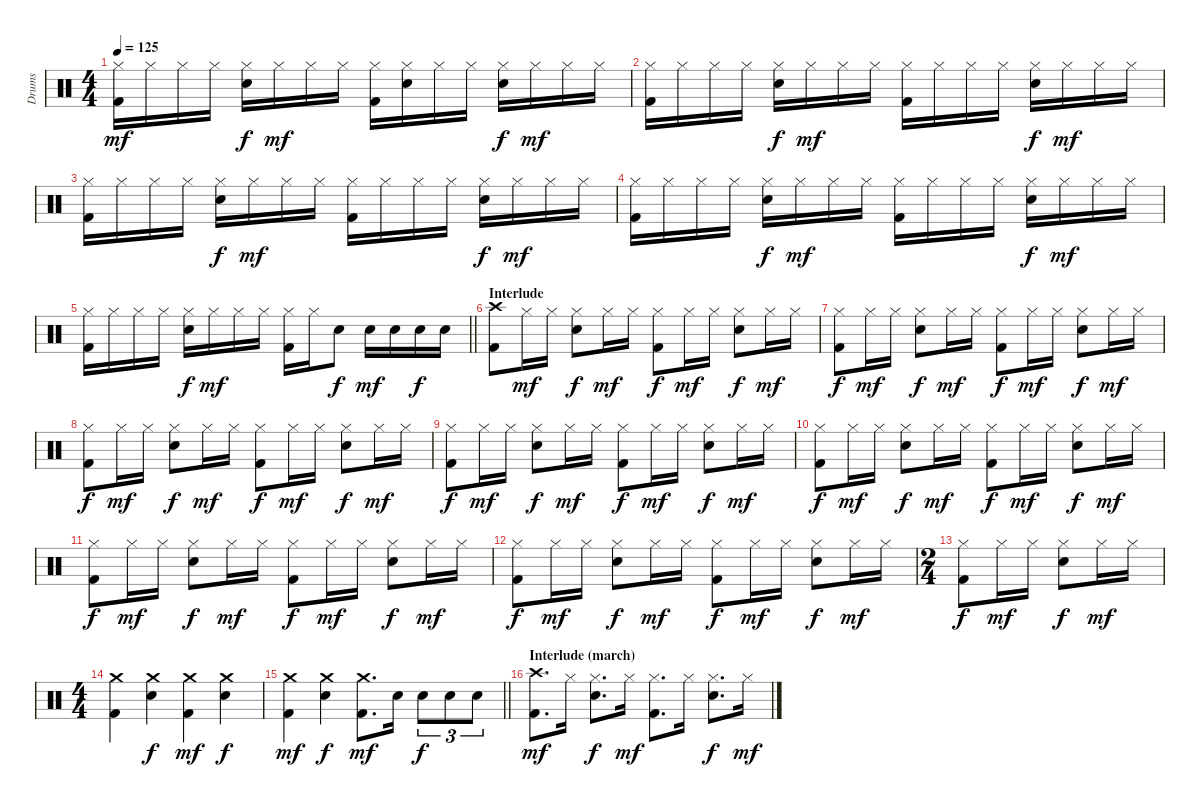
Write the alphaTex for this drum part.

\track ("Drums" "Drums") {instrument percussion}
\staff {score}
\articulation defaults
\ts (4 4)
\tempo 125
\clef neutral
\ks c
("Hi-Hat (closed)" "Kick (hit) 2").16{dy mf} "Hi-Hat (closed)".16 "Hi-Hat (closed)".16 "Hi-Hat (closed)".16 ("Hi-Hat (closed)" "Snare (hit) 2").16{dy f} "Hi-Hat (closed)".16{dy mf} "Hi-Hat (closed)".16 "Hi-Hat (closed)".16 ("Hi-Hat (closed)" "Kick (hit) 2").16 ("Hi-Hat (closed)" "Snare (hit) 2").16 "Hi-Hat (closed)".16 "Hi-Hat (closed)".16 ("Hi-Hat (closed)" "Snare (hit) 2").16{dy f} "Hi-Hat (closed)".16{dy mf} "Hi-Hat (closed)".16 "Hi-Hat (closed)".16 |
("Hi-Hat (closed)" "Kick (hit) 2").16 "Hi-Hat (closed)".16 "Hi-Hat (closed)".16 "Hi-Hat (closed)".16 ("Hi-Hat (closed)" "Snare (hit) 2").16{dy f} "Hi-Hat (closed)".16{dy mf} "Hi-Hat (closed)".16 "Hi-Hat (closed)".16 ("Hi-Hat (closed)" "Kick (hit) 2").16 "Hi-Hat (closed)".16 "Hi-Hat (closed)".16 "Hi-Hat (closed)".16 ("Hi-Hat (closed)" "Snare (hit) 2").16{dy f} "Hi-Hat (closed)".16{dy mf} "Hi-Hat (closed)".16 "Hi-Hat (closed)".16 |
("Hi-Hat (closed)" "Kick (hit) 2").16 "Hi-Hat (closed)".16 "Hi-Hat (closed)".16 "Hi-Hat (closed)".16 ("Hi-Hat (closed)" "Snare (hit) 2").16{dy f} "Hi-Hat (closed)".16{dy mf} "Hi-Hat (closed)".16 "Hi-Hat (closed)".16 ("Hi-Hat (closed)" "Kick (hit) 2").16 "Hi-Hat (closed)".16 "Hi-Hat (closed)".16 "Hi-Hat (closed)".16 ("Hi-Hat (closed)" "Snare (hit) 2").16{dy f} "Hi-Hat (closed)".16{dy mf} "Hi-Hat (closed)".16 "Hi-Hat (closed)".16 |
("Hi-Hat (closed)" "Kick (hit) 2").16 "Hi-Hat (closed)".16 "Hi-Hat (closed)".16 "Hi-Hat (closed)".16 ("Hi-Hat (closed)" "Snare (hit) 2").16{dy f} "Hi-Hat (closed)".16{dy mf} "Hi-Hat (closed)".16 "Hi-Hat (closed)".16 ("Hi-Hat (closed)" "Kick (hit) 2").16 "Hi-Hat (closed)".16 "Hi-Hat (closed)".16 "Hi-Hat (closed)".16 ("Hi-Hat (closed)" "Snare (hit) 2").16{dy f} "Hi-Hat (closed)".16{dy mf} "Hi-Hat (closed)".16 "Hi-Hat (closed)".16 |
\barLineRight lightlight
("Hi-Hat (closed)" "Kick (hit) 2").16 "Hi-Hat (closed)".16 "Hi-Hat (closed)".16 "Hi-Hat (closed)".16 ("Hi-Hat (closed)" "Snare (hit) 2").16{dy f} "Hi-Hat (closed)".16{dy mf} "Hi-Hat (closed)".16 "Hi-Hat (closed)".16 ("Hi-Hat (closed)" "Kick (hit) 2").16 "Hi-Hat (closed)".16 "Snare (hit) 2".8{dy f} "Snare (hit) 2".16{dy mf} "Snare (hit) 2".16 "Snare (hit) 2".16{dy f} "Snare (hit) 2".16 |
\section ("" "Interlude")
("Crash high (hit)" "Kick (hit) 2").8 "Hi-Hat (closed)".16{dy mf} "Hi-Hat (closed)".16 ("Hi-Hat (closed)" "Snare (hit) 2").8{dy f} "Hi-Hat (closed)".16{dy mf} "Hi-Hat (closed)".16 ("Hi-Hat (closed)" "Kick (hit) 2").8{dy f} "Hi-Hat (closed)".16{dy mf} "Hi-Hat (closed)".16 ("Hi-Hat (closed)" "Snare (hit) 2").8{dy f} "Hi-Hat (closed)".16{dy mf} "Hi-Hat (closed)".16 |
("Hi-Hat (closed)" "Kick (hit) 2").8{dy f} "Hi-Hat (closed)".16{dy mf} "Hi-Hat (closed)".16 ("Hi-Hat (closed)" "Snare (hit) 2").8{dy f} "Hi-Hat (closed)".16{dy mf} "Hi-Hat (closed)".16 ("Hi-Hat (closed)" "Kick (hit) 2").8{dy f} "Hi-Hat (closed)".16{dy mf} "Hi-Hat (closed)".16 ("Hi-Hat (closed)" "Snare (hit) 2").8{dy f} "Hi-Hat (closed)".16{dy mf} "Hi-Hat (closed)".16 |
("Hi-Hat (closed)" "Kick (hit) 2").8{dy f} "Hi-Hat (closed)".16{dy mf} "Hi-Hat (closed)".16 ("Hi-Hat (closed)" "Snare (hit) 2").8{dy f} "Hi-Hat (closed)".16{dy mf} "Hi-Hat (closed)".16 ("Hi-Hat (closed)" "Kick (hit) 2").8{dy f} "Hi-Hat (closed)".16{dy mf} "Hi-Hat (closed)".16 ("Hi-Hat (closed)" "Snare (hit) 2").8{dy f} "Hi-Hat (closed)".16{dy mf} "Hi-Hat (closed)".16 |
("Hi-Hat (closed)" "Kick (hit) 2").8{dy f} "Hi-Hat (closed)".16{dy mf} "Hi-Hat (closed)".16 ("Hi-Hat (closed)" "Snare (hit) 2").8{dy f} "Hi-Hat (closed)".16{dy mf} "Hi-Hat (closed)".16 ("Hi-Hat (closed)" "Kick (hit) 2").8{dy f} "Hi-Hat (closed)".16{dy mf} "Hi-Hat (closed)".16 ("Hi-Hat (closed)" "Snare (hit) 2").8{dy f} "Hi-Hat (closed)".16{dy mf} "Hi-Hat (closed)".16 |
("Hi-Hat (closed)" "Kick (hit) 2").8{dy f} "Hi-Hat (closed)".16{dy mf} "Hi-Hat (closed)".16 ("Hi-Hat (closed)" "Snare (hit) 2").8{dy f} "Hi-Hat (closed)".16{dy mf} "Hi-Hat (closed)".16 ("Hi-Hat (closed)" "Kick (hit) 2").8{dy f} "Hi-Hat (closed)".16{dy mf} "Hi-Hat (closed)".16 ("Hi-Hat (closed)" "Snare (hit) 2").8{dy f} "Hi-Hat (closed)".16{dy mf} "Hi-Hat (closed)".16 |
("Hi-Hat (closed)" "Kick (hit) 2").8{dy f} "Hi-Hat (closed)".16{dy mf} "Hi-Hat (closed)".16 ("Hi-Hat (closed)" "Snare (hit) 2").8{dy f} "Hi-Hat (closed)".16{dy mf} "Hi-Hat (closed)".16 ("Hi-Hat (closed)" "Kick (hit) 2").8{dy f} "Hi-Hat (closed)".16{dy mf} "Hi-Hat (closed)".16 ("Hi-Hat (closed)" "Snare (hit) 2").8{dy f} "Hi-Hat (closed)".16{dy mf} "Hi-Hat (closed)".16 |
("Hi-Hat (closed)" "Kick (hit) 2").8{dy f} "Hi-Hat (closed)".16{dy mf} "Hi-Hat (closed)".16 ("Hi-Hat (closed)" "Snare (hit) 2").8{dy f} "Hi-Hat (closed)".16{dy mf} "Hi-Hat (closed)".16 ("Hi-Hat (closed)" "Kick (hit) 2").8{dy f} "Hi-Hat (closed)".16{dy mf} "Hi-Hat (closed)".16 ("Hi-Hat (closed)" "Snare (hit) 2").8{dy f} "Hi-Hat (closed)".16{dy mf} "Hi-Hat (closed)".16 |
\ts (2 4)
("Hi-Hat (closed)" "Kick (hit) 2").8{dy f} "Hi-Hat (closed)".16{dy mf} "Hi-Hat (closed)".16 ("Hi-Hat (closed)" "Snare (hit) 2").8{dy f} "Hi-Hat (closed)".16{dy mf} "Hi-Hat (closed)".16 |
\ts (4 4)
("Crash medium (hit)" "Kick (hit) 2").4 ("Crash medium (hit)" "Snare (hit) 2").4{dy f} ("Crash medium (hit)" "Kick (hit) 2").4{dy mf} ("Crash medium (hit)" "Snare (hit) 2").4{dy f} |
\barLineRight lightlight
("Crash medium (hit)" "Kick (hit) 2").4{dy mf} ("Crash medium (hit)" "Snare (hit) 2").4{dy f} ("Crash medium (hit)" "Kick (hit) 2").8{d dy mf} "Snare (hit) 2".16 "Snare (hit) 2".8{tu (3 2) dy f} "Snare (hit) 2".8{tu (3 2)} "Snare (hit) 2".8{tu (3 2)} |
\section ("" "Interlude (march)")
("Crash high (hit)" "Kick (hit) 2").8{d dy mf} "Hi-Hat (closed)".16 ("Hi-Hat (closed)" "Snare (hit) 2").8{d dy f} "Hi-Hat (closed)".16{dy mf} ("Hi-Hat (closed)" "Kick (hit) 2").8{d} "Hi-Hat (closed)".16 ("Hi-Hat (closed)" "Snare (hit) 2").8{d dy f} "Hi-Hat (closed)".16{dy mf}
